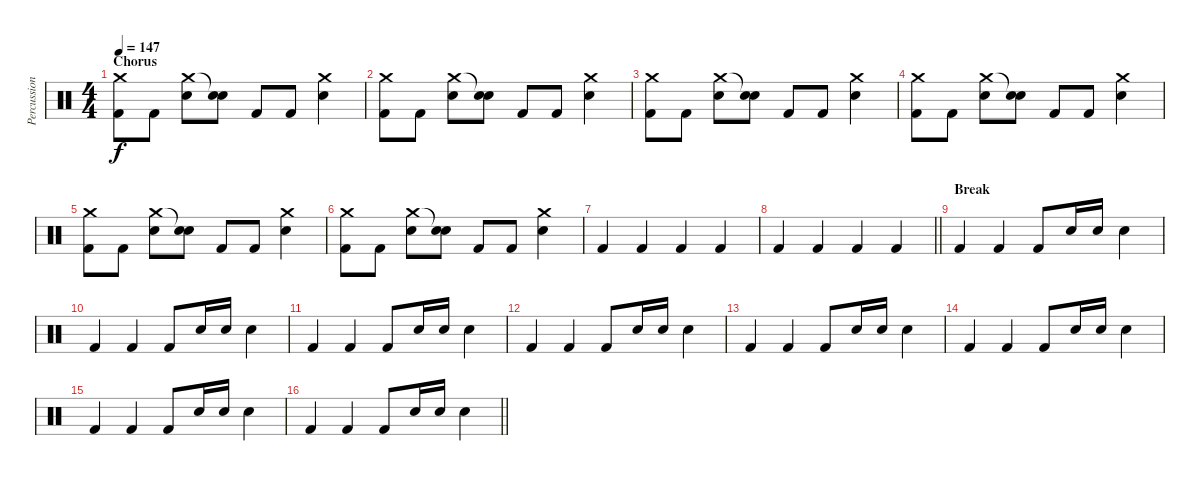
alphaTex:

\track ("Percussion" "Percussion") {instrument percussion}
\staff {score}
\articulation defaults
\ts (4 4)
\section ("" "Chorus")
\tempo 147
\clef neutral
\ks c
("Crash medium (hit)" "Kick (hit) 2").8{dy f} "Kick (hit) 2".8 ("Crash medium (hit)" "Electric Snare (hit)").8 ("Snare (hit)"{t} "Electric Snare (hit)").8 "Kick (hit) 2".8 "Kick (hit) 2".8 ("Crash medium (hit)" "Electric Snare (hit)").4 |
("Crash medium (hit)" "Kick (hit) 2").8 "Kick (hit) 2".8 ("Crash medium (hit)" "Electric Snare (hit)").8 ("Snare (hit)"{t} "Electric Snare (hit)").8 "Kick (hit) 2".8 "Kick (hit) 2".8 ("Crash medium (hit)" "Electric Snare (hit)").4 |
("Crash medium (hit)" "Kick (hit) 2").8 "Kick (hit) 2".8 ("Crash medium (hit)" "Electric Snare (hit)").8 ("Snare (hit)"{t} "Electric Snare (hit)").8 "Kick (hit) 2".8 "Kick (hit) 2".8 ("Crash medium (hit)" "Electric Snare (hit)").4 |
("Crash medium (hit)" "Kick (hit) 2").8 "Kick (hit) 2".8 ("Crash medium (hit)" "Electric Snare (hit)").8 ("Snare (hit)"{t} "Electric Snare (hit)").8 "Kick (hit) 2".8 "Kick (hit) 2".8 ("Crash medium (hit)" "Electric Snare (hit)").4 |
("Crash medium (hit)" "Kick (hit) 2").8 "Kick (hit) 2".8 ("Crash medium (hit)" "Electric Snare (hit)").8 ("Snare (hit)"{t} "Electric Snare (hit)").8 "Kick (hit) 2".8 "Kick (hit) 2".8 ("Crash medium (hit)" "Electric Snare (hit)").4 |
("Crash medium (hit)" "Kick (hit) 2").8 "Kick (hit) 2".8 ("Crash medium (hit)" "Electric Snare (hit)").8 ("Snare (hit)"{t} "Electric Snare (hit)").8 "Kick (hit) 2".8 "Kick (hit) 2".8 ("Crash medium (hit)" "Electric Snare (hit)").4 |
"Kick (hit) 2".4 "Kick (hit) 2".4 "Kick (hit) 2".4 "Kick (hit) 2".4 |
\barLineRight lightlight "Kick (hit) 2".4 "Kick (hit) 2".4 "Kick (hit) 2".4 "Kick (hit) 2".4
|
\section ("" "Break")
"Kick (hit) 2".4 "Kick (hit) 2".4 "Kick (hit) 2".8 "Electric Snare (hit)".16 "Electric Snare (hit)".16 "Electric Snare (hit)".4 |
"Kick (hit) 2".4 "Kick (hit) 2".4 "Kick (hit) 2".8 "Electric Snare (hit)".16 "Electric Snare (hit)".16 "Electric Snare (hit)".4 |
"Kick (hit) 2".4 "Kick (hit) 2".4 "Kick (hit) 2".8 "Electric Snare (hit)".16 "Electric Snare (hit)".16 "Electric Snare (hit)".4 |
"Kick (hit) 2".4 "Kick (hit) 2".4 "Kick (hit) 2".8 "Electric Snare (hit)".16 "Electric Snare (hit)".16 "Electric Snare (hit)".4 |
"Kick (hit) 2".4 "Kick (hit) 2".4 "Kick (hit) 2".8 "Electric Snare (hit)".16 "Electric Snare (hit)".16 "Electric Snare (hit)".4 |
"Kick (hit) 2".4 "Kick (hit) 2".4 "Kick (hit) 2".8 "Electric Snare (hit)".16 "Electric Snare (hit)".16 "Electric Snare (hit)".4 |
"Kick (hit) 2".4 "Kick (hit) 2".4 "Kick (hit) 2".8 "Electric Snare (hit)".16 "Electric Snare (hit)".16 "Electric Snare (hit)".4 |
\barLineRight lightlight "Kick (hit) 2".4 "Kick (hit) 2".4 "Kick (hit) 2".8 "Electric Snare (hit)".16 "Electric Snare (hit)".16 "Electric Snare (hit)".4
